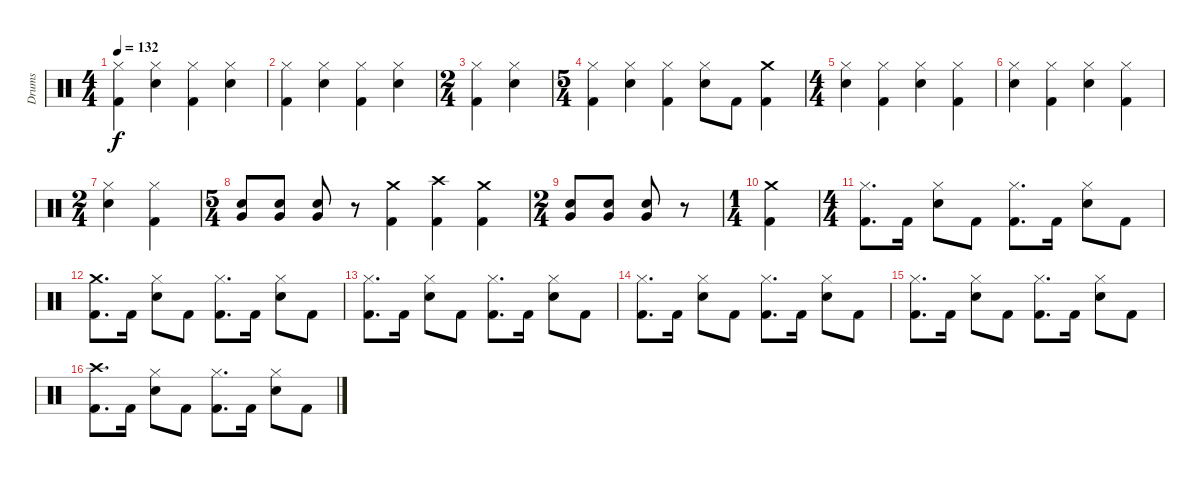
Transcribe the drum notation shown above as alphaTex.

\track ("Drums" "Drums") {instrument percussion}
\staff {score}
\articulation defaults
\ts (4 4)
\tempo 132
\clef neutral
\ks c
("Hi-Hat (closed)" "Kick (hit) 2").4{dy f} ("Hi-Hat (closed)" "Snare (hit) 2").4 ("Hi-Hat (closed)" "Kick (hit) 2").4 ("Hi-Hat (closed)" "Snare (hit) 2").4 |
("Hi-Hat (closed)" "Kick (hit) 2").4 ("Hi-Hat (closed)" "Snare (hit) 2").4 ("Hi-Hat (closed)" "Kick (hit) 2").4 ("Hi-Hat (closed)" "Snare (hit) 2").4 |
\ts (2 4)
("Hi-Hat (closed)" "Kick (hit) 2").4 ("Hi-Hat (closed)" "Snare (hit) 2").4 |
\ts (5 4)
("Hi-Hat (closed)" "Kick (hit) 2").4 ("Hi-Hat (closed)" "Snare (hit) 2").4 ("Hi-Hat (closed)" "Kick (hit) 2").4 ("Hi-Hat (closed)" "Snare (hit) 2").8 "Kick (hit) 2".8 ("Crash medium (hit)" "Kick (hit) 2").4 |
\ts (4 4)
("Hi-Hat (closed)" "Snare (hit) 2").4 ("Hi-Hat (closed)" "Kick (hit) 2").4 ("Hi-Hat (closed)" "Snare (hit) 2").4 ("Hi-Hat (closed)" "Kick (hit) 2").4 |
("Hi-Hat (closed)" "Snare (hit) 2").4 ("Hi-Hat (closed)" "Kick (hit) 2").4 ("Hi-Hat (closed)" "Snare (hit) 2").4 ("Hi-Hat (closed)" "Kick (hit) 2").4 |
\ts (2 4)
("Hi-Hat (closed)" "Snare (hit) 2").4 ("Hi-Hat (closed)" "Kick (hit) 2").4 |
\ts (5 4)
("Snare (hit) 2" "Very Low Tom (hit)").8 ("Snare (hit) 2" "Very Low Tom (hit)").8 ("Snare (hit) 2" "Very Low Tom (hit)").8 r.8 ("Crash medium (hit)" "Kick (hit) 2").4 ("Crash high (hit)" "Kick (hit) 2").4 ("Crash medium (hit)" "Kick (hit) 2").4 |
\ts (2 4)
("Snare (hit) 2" "Very Low Tom (hit)").8 ("Snare (hit) 2" "Very Low Tom (hit)").8 ("Snare (hit) 2" "Very Low Tom (hit)").8 r.8 |
\ts (1 4)
("Crash medium (hit)" "Kick (hit) 2").4 |
\ts (4 4)
("Hi-Hat (closed)" "Kick (hit) 2").8{d} "Kick (hit) 2".16 ("Hi-Hat (closed)" "Snare (hit) 2").8 "Kick (hit) 2".8 ("Hi-Hat (closed)" "Kick (hit) 2").8{d} "Kick (hit) 2".16 ("Hi-Hat (closed)" "Snare (hit) 2").8 "Kick (hit) 2".8 |
("Crash medium (hit)" "Kick (hit) 2").8{d} "Kick (hit) 2".16 ("Hi-Hat (closed)" "Snare (hit) 2").8 "Kick (hit) 2".8 ("Hi-Hat (closed)" "Kick (hit) 2").8{d} "Kick (hit) 2".16 ("Hi-Hat (closed)" "Snare (hit) 2").8 "Kick (hit) 2".8 |
("Hi-Hat (closed)" "Kick (hit) 2").8{d} "Kick (hit) 2".16 ("Hi-Hat (closed)" "Snare (hit) 2").8 "Kick (hit) 2".8 ("Hi-Hat (closed)" "Kick (hit) 2").8{d} "Kick (hit) 2".16 ("Hi-Hat (closed)" "Snare (hit) 2").8 "Kick (hit) 2".8 |
("Hi-Hat (closed)" "Kick (hit) 2").8{d} "Kick (hit) 2".16 ("Hi-Hat (closed)" "Snare (hit) 2").8 "Kick (hit) 2".8 ("Hi-Hat (closed)" "Kick (hit) 2").8{d} "Kick (hit) 2".16 ("Hi-Hat (closed)" "Snare (hit) 2").8 "Kick (hit) 2".8 |
("Hi-Hat (closed)" "Kick (hit) 2").8{d} "Kick (hit) 2".16 ("Hi-Hat (closed)" "Snare (hit) 2").8 "Kick (hit) 2".8 ("Hi-Hat (closed)" "Kick (hit) 2").8{d} "Kick (hit) 2".16 ("Hi-Hat (closed)" "Snare (hit) 2").8 "Kick (hit) 2".8 |
("Crash high (hit)" "Kick (hit) 2").8{d} "Kick (hit) 2".16 ("Hi-Hat (closed)" "Snare (hit) 2").8 "Kick (hit) 2".8 ("Hi-Hat (closed)" "Kick (hit) 2").8{d} "Kick (hit) 2".16 ("Hi-Hat (closed)" "Snare (hit) 2").8 "Kick (hit) 2".8
